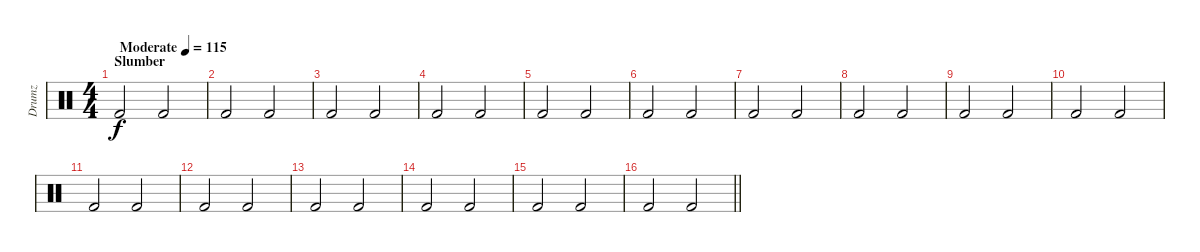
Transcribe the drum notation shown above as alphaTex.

\track ("Drumz" "Drumz") {instrument percussion}
\staff {score}
\articulation defaults
\ts (4 4)
\section ("" "Slumber")
\tempo (115 "Moderate")
\clef neutral
\ks c "Kick (hit) 2".2{dy f} "Kick (hit) 2".2
|
"Kick (hit) 2".2 "Kick (hit) 2".2 |
"Kick (hit) 2".2 "Kick (hit) 2".2 |
"Kick (hit) 2".2 "Kick (hit) 2".2 |
"Kick (hit) 2".2 "Kick (hit) 2".2 |
"Kick (hit) 2".2 "Kick (hit) 2".2 |
"Kick (hit) 2".2 "Kick (hit) 2".2 |
"Kick (hit) 2".2 "Kick (hit) 2".2 |
"Kick (hit) 2".2 "Kick (hit) 2".2 |
"Kick (hit) 2".2 "Kick (hit) 2".2 |
"Kick (hit) 2".2 "Kick (hit) 2".2 |
"Kick (hit) 2".2 "Kick (hit) 2".2 |
"Kick (hit) 2".2 "Kick (hit) 2".2 |
"Kick (hit) 2".2 "Kick (hit) 2".2 |
"Kick (hit) 2".2 "Kick (hit) 2".2 |
\barLineRight lightlight "Kick (hit) 2".2 "Kick (hit) 2".2
